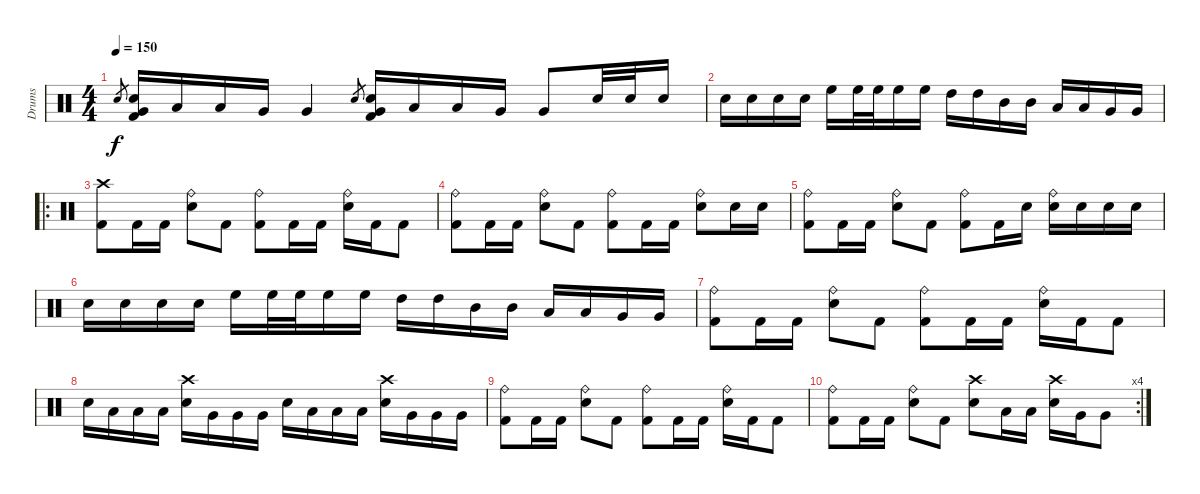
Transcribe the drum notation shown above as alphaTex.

\track ("Drums" "Drums") {instrument percussion}
\staff {score}
\articulation defaults
\ts (4 4)
\tempo 150
\clef neutral
\ks c "Electric Snare (hit)".8{gr dy f}
("Very Low Tom (hit)" "Electric Snare (hit)" "Kick (hit) 2").16 "Low Tom (hit)".16 "Low Tom (hit)".16 "Very Low Tom (hit)".16 "Very Low Tom (hit)".4 "Electric Snare (hit)".8{gr} ("Very Low Tom (hit)" "Electric Snare (hit)" "Kick (hit) 2").16 "Low Tom (hit)".16 "Low Tom (hit)".16 "Very Low Tom (hit)".16 "Very Low Tom (hit)".8 "Electric Snare (hit)".32 "Electric Snare (hit)".32 "Electric Snare (hit)".16 |
"Electric Snare (hit)".16 "Electric Snare (hit)".16 "Electric Snare (hit)".16 "Electric Snare (hit)".16 "High Floor Tom (hit)".16 "High Floor Tom (hit)".32 "High Floor Tom (hit)".32 "High Floor Tom (hit)".16 "High Floor Tom (hit)".16 "High Tom (hit)".16 "High Tom (hit)".16 "Mid Tom (hit)".16 "Mid Tom (hit)".16 "Low Tom (hit)".16 "Low Tom (hit)".16 "Very Low Tom (hit)".16 "Very Low Tom (hit)".16 |
\ro
("Crash high (hit)" "Kick (hit) 2").8 "Kick (hit) 2".16 "Kick (hit) 2".16 ("Ride (bell)" "Electric Snare (hit)").8 "Kick (hit) 2".8 ("Ride (bell)" "Kick (hit) 2").8 "Kick (hit) 2".16 "Kick (hit) 2".16 ("Ride (bell)" "Electric Snare (hit)").16 "Kick (hit) 2".16 "Kick (hit) 2".8 |
("Ride (bell)" "Kick (hit) 2").8 "Kick (hit) 2".16 "Kick (hit) 2".16 ("Ride (bell)" "Electric Snare (hit)").8 "Kick (hit) 2".8 ("Ride (bell)" "Kick (hit) 2").8 "Kick (hit) 2".16 "Kick (hit) 2".16 ("Ride (bell)" "Electric Snare (hit)").8 "Electric Snare (hit)".16 "Electric Snare (hit)".16 |
("Ride (bell)" "Kick (hit) 2").8 "Kick (hit) 2".16 "Kick (hit) 2".16 ("Ride (bell)" "Electric Snare (hit)").8 "Kick (hit) 2".8 ("Ride (bell)" "Kick (hit) 2").8 "Kick (hit) 2".16 "Electric Snare (hit)".16 ("Ride (bell)" "Electric Snare (hit)").16 "Electric Snare (hit)".16 "Electric Snare (hit)".16 "Electric Snare (hit)".16 |
"Electric Snare (hit)".16 "Electric Snare (hit)".16 "Electric Snare (hit)".16 "Electric Snare (hit)".16 "High Floor Tom (hit)".16 "High Floor Tom (hit)".32 "High Floor Tom (hit)".32 "High Floor Tom (hit)".16 "High Floor Tom (hit)".16 "High Tom (hit)".16 "High Tom (hit)".16 "Mid Tom (hit)".16 "Mid Tom (hit)".16 "Low Tom (hit)".16 "Low Tom (hit)".16 "Very Low Tom (hit)".16 "Very Low Tom (hit)".16 |
("Ride (bell)" "Kick (hit) 2").8 "Kick (hit) 2".16 "Kick (hit) 2".16 ("Ride (bell)" "Electric Snare (hit)").8 "Kick (hit) 2".8 ("Ride (bell)" "Kick (hit) 2").8 "Kick (hit) 2".16 "Kick (hit) 2".16 ("Ride (bell)" "Electric Snare (hit)").16 "Kick (hit) 2".16 "Kick (hit) 2".8 |
"Electric Snare (hit)".16 "Low Tom (hit)".16 "Low Tom (hit)".16 "Low Tom (hit)".16 ("Crash high (hit)" "Electric Snare (hit)").16 "Very Low Tom (hit)".16 "Very Low Tom (hit)".16 "Very Low Tom (hit)".16 "Electric Snare (hit)".16 "Low Tom (hit)".16 "Low Tom (hit)".16 "Low Tom (hit)".16 ("Crash high (hit)" "Electric Snare (hit)").16 "Very Low Tom (hit)".16 "Very Low Tom (hit)".16 "Very Low Tom (hit)".16 |
("Ride (bell)" "Kick (hit) 2").8 "Kick (hit) 2".16 "Kick (hit) 2".16 ("Ride (bell)" "Electric Snare (hit)").8 "Kick (hit) 2".8 ("Ride (bell)" "Kick (hit) 2").8 "Kick (hit) 2".16 "Kick (hit) 2".16 ("Ride (bell)" "Electric Snare (hit)").16 "Kick (hit) 2".16 "Kick (hit) 2".8 |
\rc 4
("Ride (bell)" "Kick (hit) 2").8 "Kick (hit) 2".16 "Kick (hit) 2".16 ("Ride (bell)" "Electric Snare (hit)").8 "Kick (hit) 2".8 ("Crash high (hit)" "Electric Snare (hit)").8 "Low Tom (hit)".16 "Low Tom (hit)".16 ("Crash high (hit)" "Electric Snare (hit)").16 "Very Low Tom (hit)".16 "Very Low Tom (hit)".8
